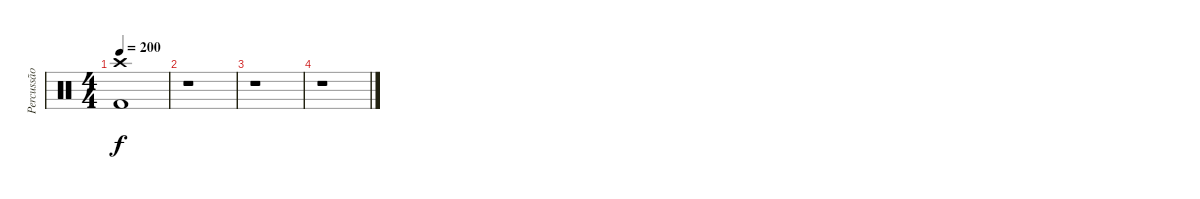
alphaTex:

\track ("Percussão" "Percussão") {instrument percussion}
\staff {score}
\articulation defaults
\ts (4 4)
\tempo 200
\clef neutral
\ks c
("Crash high (hit)" "Kick (hit) 2").1{dy f} |
r.1 |
r.1 |
r.1
